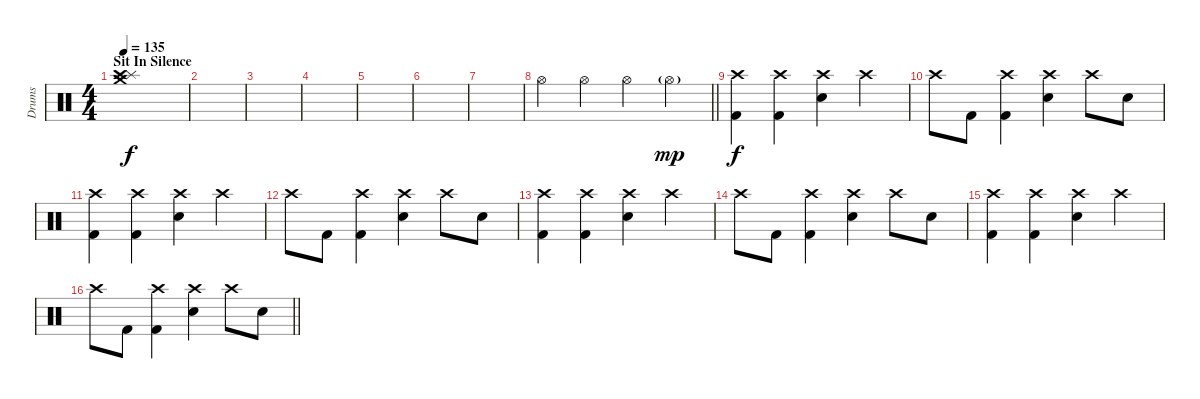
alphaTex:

\track ("Drums" "Drums") {instrument percussion}
\staff {score}
\articulation defaults
\ts (4 4)
\section ("" "Sit In Silence")
\tempo 135
\clef neutral
\ks c
("Splash (hit)" "Crash high (hit)" "Crash medium (hit)").1{dy f} |
|
|
|
|
|
|
\barLineRight lightlight "Hi-Hat (open)".4 "Hi-Hat (open)".4 "Hi-Hat (open)".4 "Hi-Hat (open)"{g}.4{dy mp}
|
("Crash high (hit)" "Kick (hit) 2").4{dy f} ("Crash high (hit)" "Kick (hit) 2").4 ("Crash high (hit)" "Electric Snare (hit)").4 "Crash high (hit)".4 |
"Crash high (hit)".8 "Kick (hit) 2".8 ("Crash high (hit)" "Kick (hit) 2").4 ("Crash high (hit)" "Electric Snare (hit)").4 "Crash high (hit)".8 "Electric Snare (hit)".8 |
("Crash high (hit)" "Kick (hit) 2").4 ("Crash high (hit)" "Kick (hit) 2").4 ("Crash high (hit)" "Electric Snare (hit)").4 "Crash high (hit)".4 |
"Crash high (hit)".8 "Kick (hit) 2".8 ("Crash high (hit)" "Kick (hit) 2").4 ("Crash high (hit)" "Electric Snare (hit)").4 "Crash high (hit)".8 "Electric Snare (hit)".8 |
("Crash high (hit)" "Kick (hit) 2").4 ("Crash high (hit)" "Kick (hit) 2").4 ("Crash high (hit)" "Electric Snare (hit)").4 "Crash high (hit)".4 |
"Crash high (hit)".8 "Kick (hit) 2".8 ("Crash high (hit)" "Kick (hit) 2").4 ("Crash high (hit)" "Electric Snare (hit)").4 "Crash high (hit)".8 "Electric Snare (hit)".8 |
("Crash high (hit)" "Kick (hit) 2").4 ("Crash high (hit)" "Kick (hit) 2").4 ("Crash high (hit)" "Electric Snare (hit)").4 "Crash high (hit)".4 |
\barLineRight lightlight "Crash high (hit)".8 "Kick (hit) 2".8
("Crash high (hit)" "Kick (hit) 2").4 ("Crash high (hit)" "Electric Snare (hit)").4 "Crash high (hit)".8 "Electric Snare (hit)".8
